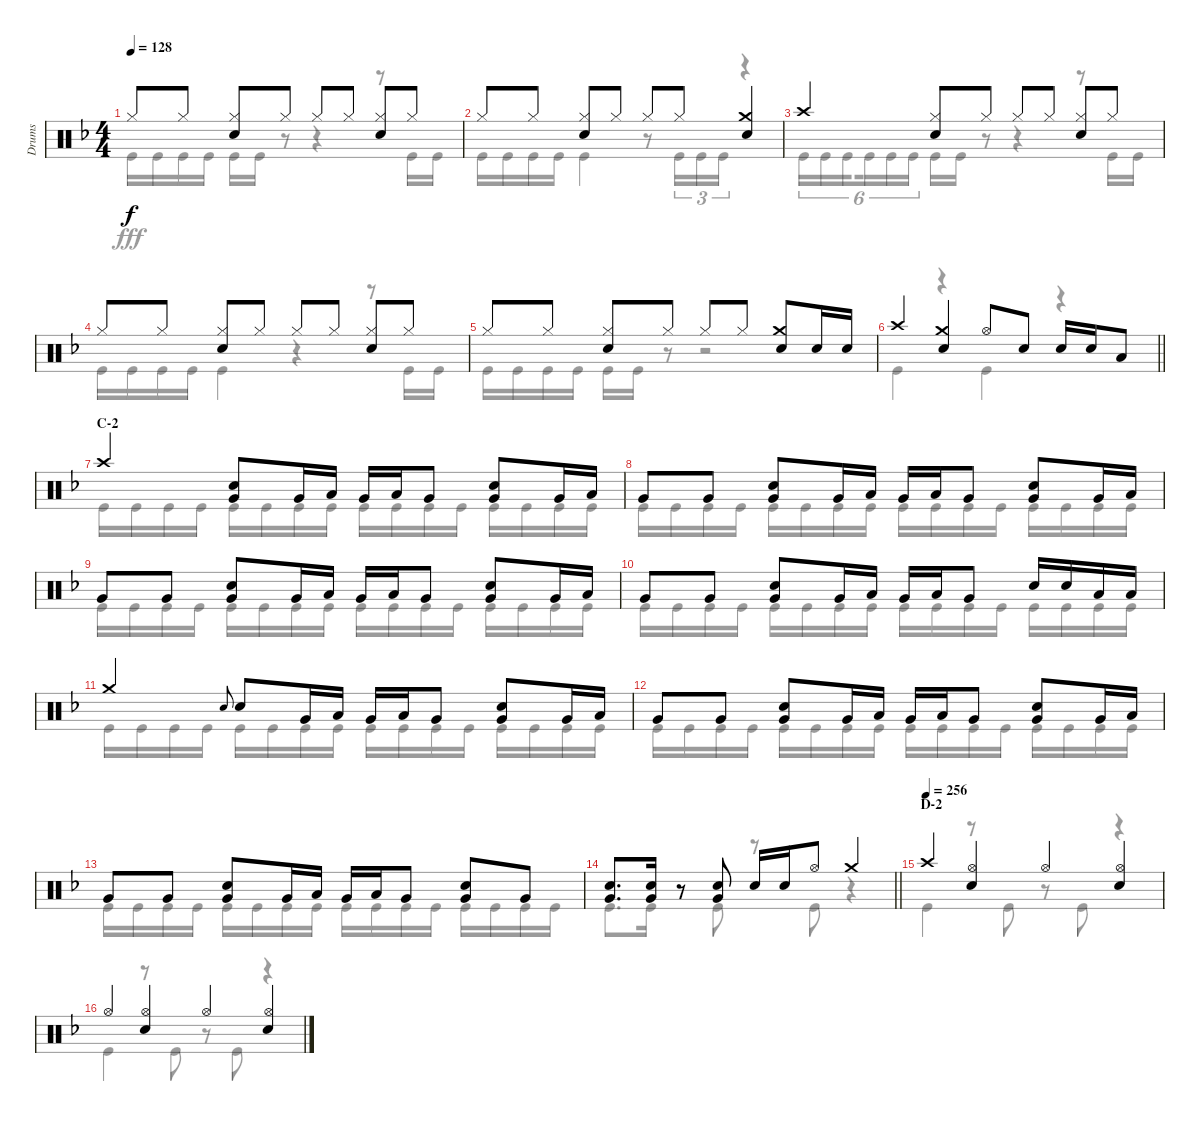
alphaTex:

\track ("Drums" "Drums") {instrument percussion}
\staff {score}
\articulation defaults
\voice
\ts (4 4)
\tempo 128
\clef neutral
\ks f "Hi-Hat (closed)".8{dy f} "Hi-Hat (closed)".8
("Hi-Hat (closed)" "Snare (hit) 2").8 "Hi-Hat (closed)".8 "Hi-Hat (closed)".8 "Hi-Hat (closed)".8 ("Hi-Hat (closed)" "Snare (hit) 2").8 "Hi-Hat (closed)".8 |
"Hi-Hat (closed)".8 "Hi-Hat (closed)".8 ("Hi-Hat (closed)" "Snare (hit) 2").8 "Hi-Hat (closed)".8 "Hi-Hat (closed)".8 "Hi-Hat (closed)".8 ("Crash medium (hit)" "Snare (hit) 2").4 |
"Crash high (hit)".4 ("Hi-Hat (closed)" "Snare (hit) 2").8 "Hi-Hat (closed)".8 "Hi-Hat (closed)".8 "Hi-Hat (closed)".8 ("Hi-Hat (closed)" "Snare (hit) 2").8 "Hi-Hat (closed)".8 |
"Hi-Hat (closed)".8 "Hi-Hat (closed)".8 ("Hi-Hat (closed)" "Snare (hit) 2").8 "Hi-Hat (closed)".8 "Hi-Hat (closed)".8 "Hi-Hat (closed)".8 ("Hi-Hat (closed)" "Snare (hit) 2").8 "Hi-Hat (closed)".8 |
"Hi-Hat (closed)".8 "Hi-Hat (closed)".8 ("Hi-Hat (closed)" "Snare (hit) 2").8 "Hi-Hat (closed)".8 "Hi-Hat (closed)".8 "Hi-Hat (closed)".8 ("Crash medium (hit)" "Snare (hit) 2").8 "Snare (hit) 2".16 "Snare (hit) 2".16 |
\barLineRight lightlight "Crash high (hit)".4
("Crash medium (hit)" "Snare (hit) 2").4 "Hi-Hat (open)".8 "Snare (hit) 2".8 "Snare (hit) 2".16 "Snare (hit) 2".16 "Low Tom (hit)".8 |
\section ("" "C-2")
"Crash high (hit)".4 ("Snare (hit) 2" "Very Low Tom (hit)").8 "Very Low Tom (hit)".16 "Low Tom (hit)".16 "Very Low Tom (hit)".16 "Low Tom (hit)".16 "Very Low Tom (hit)".8 ("Snare (hit) 2" "Very Low Tom (hit)").8 "Very Low Tom (hit)".16 "Low Tom (hit)".16 |
"Very Low Tom (hit)".8 "Very Low Tom (hit)".8 ("Snare (hit) 2" "Very Low Tom (hit)").8 "Very Low Tom (hit)".16 "Low Tom (hit)".16 "Very Low Tom (hit)".16 "Low Tom (hit)".16 "Very Low Tom (hit)".8 ("Snare (hit) 2" "Very Low Tom (hit)").8 "Very Low Tom (hit)".16 "Low Tom (hit)".16 |
"Very Low Tom (hit)".8 "Very Low Tom (hit)".8 ("Snare (hit) 2" "Very Low Tom (hit)").8 "Very Low Tom (hit)".16 "Low Tom (hit)".16 "Very Low Tom (hit)".16 "Low Tom (hit)".16 "Very Low Tom (hit)".8 ("Snare (hit) 2" "Very Low Tom (hit)").8 "Very Low Tom (hit)".16 "Low Tom (hit)".16 |
"Very Low Tom (hit)".8 "Very Low Tom (hit)".8 ("Snare (hit) 2" "Very Low Tom (hit)").8 "Very Low Tom (hit)".16 "Low Tom (hit)".16 "Very Low Tom (hit)".16 "Low Tom (hit)".16 "Very Low Tom (hit)".8 "Snare (hit) 2".16 "Snare (hit) 2".16 "Low Tom (hit)".16 "Low Tom (hit)".16 |
"Crash medium (hit)".4 "Snare (hit) 2".8{gr onbeat} "Snare (hit) 2".8 "Very Low Tom (hit)".16 "Low Tom (hit)".16 "Very Low Tom (hit)".16 "Low Tom (hit)".16 "Very Low Tom (hit)".8 ("Snare (hit) 2" "Very Low Tom (hit)").8 "Very Low Tom (hit)".16 "Low Tom (hit)".16 |
"Very Low Tom (hit)".8 "Very Low Tom (hit)".8 ("Snare (hit) 2" "Very Low Tom (hit)").8 "Very Low Tom (hit)".16 "Low Tom (hit)".16 "Very Low Tom (hit)".16 "Low Tom (hit)".16 "Very Low Tom (hit)".8 ("Snare (hit) 2" "Very Low Tom (hit)").8 "Very Low Tom (hit)".16 "Low Tom (hit)".16 |
"Very Low Tom (hit)".8 "Very Low Tom (hit)".8 ("Snare (hit) 2" "Very Low Tom (hit)").8 "Very Low Tom (hit)".16 "Low Tom (hit)".16 "Very Low Tom (hit)".16 "Low Tom (hit)".16 "Very Low Tom (hit)".8 ("Snare (hit) 2" "Very Low Tom (hit)").8 "Very Low Tom (hit)".8 |
\barLineRight lightlight
("Snare (hit) 2" "Very Low Tom (hit)").8{d} ("Snare (hit) 2" "Very Low Tom (hit)").16 r.8 ("Snare (hit) 2" "Very Low Tom (hit)").8 "Snare (hit) 2".16 "Snare (hit) 2".16 "Hi-Hat (open)".8 "Crash medium (hit)".4 |
\section ("" "D-2")
\tempo (256)
"Crash high (hit)".4 ("Hi-Hat (open)" "Snare (hit) 2").4 "Hi-Hat (open)".4 ("Hi-Hat (open)" "Snare (hit) 2").4 |
"Hi-Hat (open)".4 ("Hi-Hat (open)" "Snare (hit) 2").4 "Hi-Hat (open)".4 ("Hi-Hat (open)" "Snare (hit) 2").4
\voice
\clef neutral
\ottava regular
\simile none
\ks f "Kick (hit)".16{dy fff} "Kick (hit)".16 "Kick (hit)".16 "Kick (hit)".16 "Kick (hit)".16 "Kick (hit)".16
r.8 r.4 r.8 "Kick (hit)".16 "Kick (hit)".16 |
"Kick (hit)".16 "Kick (hit)".16 "Kick (hit)".16 "Kick (hit)".16 "Kick (hit)".4 r.8 "Kick (hit)".16{tu (3 2)} "Kick (hit)".16{tu (3 2)} "Kick (hit)".16{tu (3 2)} r.4 |
"Kick (hit)".16{tu (6 4)} "Kick (hit)".16{tu (6 4)} "Kick (hit)".16{tu (6 4) beam splitsecondary} "Kick (hit)".16{tu (6 4)} "Kick (hit)".16{tu (6 4)} "Kick (hit)".16{tu (6 4)} "Kick (hit)".16 "Kick (hit)".16 r.8 r.4 r.8 "Kick (hit)".16 "Kick (hit)".16 |
"Kick (hit)".16 "Kick (hit)".16 "Kick (hit)".16 "Kick (hit)".16 "Kick (hit)".4 r.4 r.8 "Kick (hit)".16 "Kick (hit)".16 |
"Kick (hit)".16 "Kick (hit)".16 "Kick (hit)".16 "Kick (hit)".16 "Kick (hit)".16 "Kick (hit)".16 r.8 r.2 |
\barLineRight lightlight "Kick (hit)".4
r.4 "Kick (hit)".4 r.4 |
"Kick (hit)".16 "Kick (hit)".16 "Kick (hit)".16 "Kick (hit)".16 "Kick (hit)".16 "Kick (hit)".16 "Kick (hit)".16 "Kick (hit)".16 "Kick (hit)".16 "Kick (hit)".16 "Kick (hit)".16 "Kick (hit)".16 "Kick (hit)".16 "Kick (hit)".16 "Kick (hit)".16 "Kick (hit)".16 |
"Kick (hit)".16 "Kick (hit)".16 "Kick (hit)".16 "Kick (hit)".16 "Kick (hit)".16 "Kick (hit)".16 "Kick (hit)".16 "Kick (hit)".16 "Kick (hit)".16 "Kick (hit)".16 "Kick (hit)".16 "Kick (hit)".16 "Kick (hit)".16 "Kick (hit)".16 "Kick (hit)".16 "Kick (hit)".16 |
"Kick (hit)".16 "Kick (hit)".16 "Kick (hit)".16 "Kick (hit)".16 "Kick (hit)".16 "Kick (hit)".16 "Kick (hit)".16 "Kick (hit)".16 "Kick (hit)".16 "Kick (hit)".16 "Kick (hit)".16 "Kick (hit)".16 "Kick (hit)".16 "Kick (hit)".16 "Kick (hit)".16 "Kick (hit)".16 |
"Kick (hit)".16 "Kick (hit)".16 "Kick (hit)".16 "Kick (hit)".16 "Kick (hit)".16 "Kick (hit)".16 "Kick (hit)".16 "Kick (hit)".16 "Kick (hit)".16 "Kick (hit)".16 "Kick (hit)".16 "Kick (hit)".16 "Kick (hit)".16 "Kick (hit)".16 "Kick (hit)".16 "Kick (hit)".16 |
"Kick (hit)".16 "Kick (hit)".16 "Kick (hit)".16 "Kick (hit)".16 "Kick (hit)".16 "Kick (hit)".16 "Kick (hit)".16 "Kick (hit)".16 "Kick (hit)".16 "Kick (hit)".16 "Kick (hit)".16 "Kick (hit)".16 "Kick (hit)".16 "Kick (hit)".16 "Kick (hit)".16 "Kick (hit)".16 |
"Kick (hit)".16 "Kick (hit)".16 "Kick (hit)".16 "Kick (hit)".16 "Kick (hit)".16 "Kick (hit)".16 "Kick (hit)".16 "Kick (hit)".16 "Kick (hit)".16 "Kick (hit)".16 "Kick (hit)".16 "Kick (hit)".16 "Kick (hit)".16 "Kick (hit)".16 "Kick (hit)".16 "Kick (hit)".16 |
"Kick (hit)".16 "Kick (hit)".16 "Kick (hit)".16 "Kick (hit)".16 "Kick (hit)".16 "Kick (hit)".16 "Kick (hit)".16 "Kick (hit)".16 "Kick (hit)".16 "Kick (hit)".16 "Kick (hit)".16 "Kick (hit)".16 "Kick (hit)".16 "Kick (hit)".16 "Kick (hit)".16 "Kick (hit)".16 |
\barLineRight lightlight "Kick (hit)".8{d} "Kick (hit)".16
r.8 "Kick (hit)".8 r.8 "Kick (hit)".8 r.4 |
"Kick (hit)".4 r.8 "Kick (hit)".8 r.8 "Kick (hit)".8 r.4 |
"Kick (hit)".4 r.8 "Kick (hit)".8 r.8 "Kick (hit)".8 r.4
